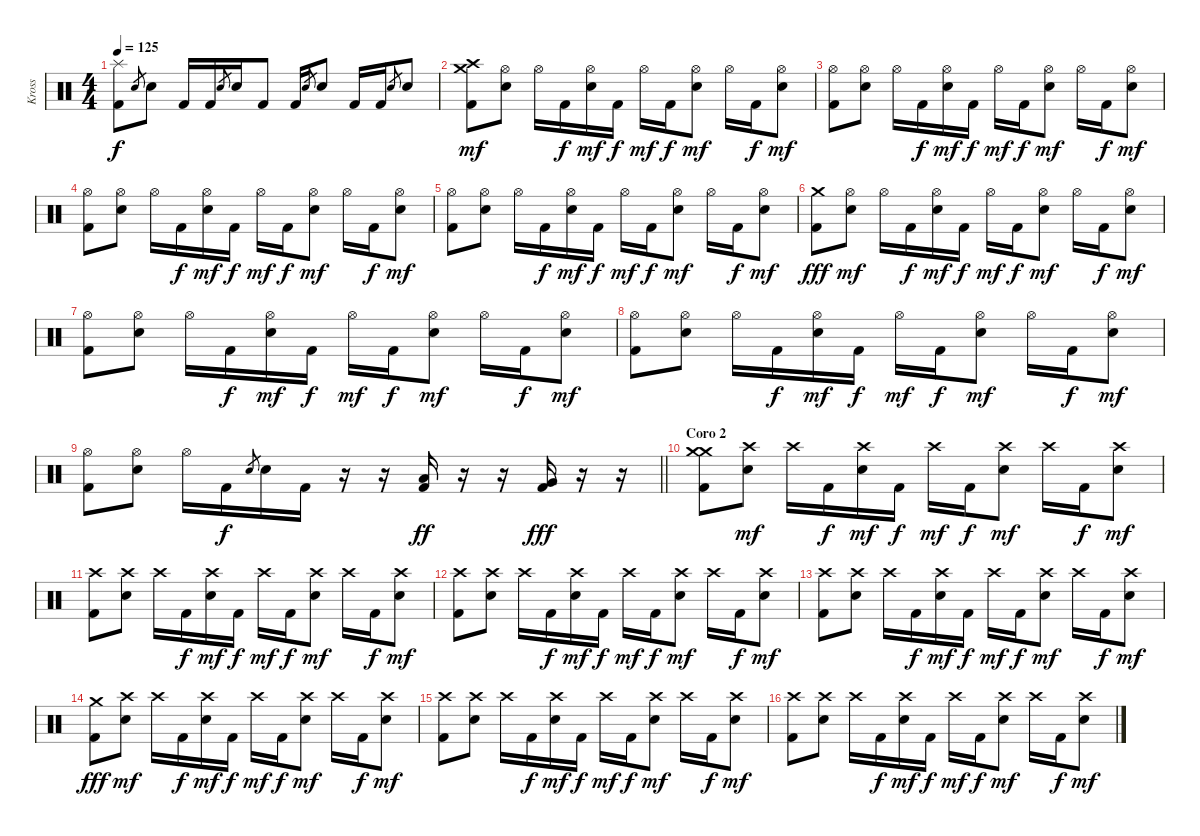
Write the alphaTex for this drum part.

\track ("Kross" "Kross") {instrument percussion}
\staff {score}
\articulation defaults
\ts (4 4)
\tempo 125
\clef neutral
\ks c
("Splash (hit)" "Kick (hit) 2").8{dy f} "Snare (hit) 2".8{gr} "Snare (hit) 2".8 "Kick (hit) 2".16 "Kick (hit) 2".16 "Snare (hit) 2".8{gr} "Snare (hit) 2".16 "Kick (hit) 2".8 "Kick (hit) 2".16 "Snare (hit) 2".8{gr} "Snare (hit) 2".8 "Kick (hit) 2".16 "Kick (hit) 2".16 "Snare (hit) 2".8{gr} "Snare (hit) 2".8 |
("Crash medium (hit)" "Crash high (hit)" "Kick (hit) 2").8{dy mf} ("Hi-Hat (open)" "Snare (hit) 2").8 "Hi-Hat (open)".16 "Kick (hit) 2".16{dy f} ("Hi-Hat (open)" "Snare (hit) 2").16{dy mf} "Kick (hit) 2".16{dy f} "Hi-Hat (open)".16{dy mf} "Kick (hit) 2".16{dy f} ("Hi-Hat (open)" "Snare (hit) 2").8{dy mf} "Hi-Hat (open)".16 "Kick (hit) 2".16{dy f} ("Hi-Hat (open)" "Snare (hit) 2").8{dy mf} |
("Hi-Hat (open)" "Kick (hit) 2").8 ("Hi-Hat (open)" "Snare (hit) 2").8 "Hi-Hat (open)".16 "Kick (hit) 2".16{dy f} ("Hi-Hat (open)" "Snare (hit) 2").16{dy mf} "Kick (hit) 2".16{dy f} "Hi-Hat (open)".16{dy mf} "Kick (hit) 2".16{dy f} ("Hi-Hat (open)" "Snare (hit) 2").8{dy mf} "Hi-Hat (open)".16 "Kick (hit) 2".16{dy f} ("Hi-Hat (open)" "Snare (hit) 2").8{dy mf} |
("Hi-Hat (open)" "Kick (hit) 2").8 ("Hi-Hat (open)" "Snare (hit) 2").8 "Hi-Hat (open)".16 "Kick (hit) 2".16{dy f} ("Hi-Hat (open)" "Snare (hit) 2").16{dy mf} "Kick (hit) 2".16{dy f} "Hi-Hat (open)".16{dy mf} "Kick (hit) 2".16{dy f} ("Hi-Hat (open)" "Snare (hit) 2").8{dy mf} "Hi-Hat (open)".16 "Kick (hit) 2".16{dy f} ("Hi-Hat (open)" "Snare (hit) 2").8{dy mf} |
("Hi-Hat (open)" "Kick (hit) 2").8 ("Hi-Hat (open)" "Snare (hit) 2").8 "Hi-Hat (open)".16 "Kick (hit) 2".16{dy f} ("Hi-Hat (open)" "Snare (hit) 2").16{dy mf} "Kick (hit) 2".16{dy f} "Hi-Hat (open)".16{dy mf} "Kick (hit) 2".16{dy f} ("Hi-Hat (open)" "Snare (hit) 2").8{dy mf} "Hi-Hat (open)".16 "Kick (hit) 2".16{dy f} ("Hi-Hat (open)" "Snare (hit) 2").8{dy mf} |
("Crash medium (hit)" "Kick (hit) 2").8{dy fff} ("Hi-Hat (open)" "Snare (hit) 2").8{dy mf} "Hi-Hat (open)".16 "Kick (hit) 2".16{dy f} ("Hi-Hat (open)" "Snare (hit) 2").16{dy mf} "Kick (hit) 2".16{dy f} "Hi-Hat (open)".16{dy mf} "Kick (hit) 2".16{dy f} ("Hi-Hat (open)" "Snare (hit) 2").8{dy mf} "Hi-Hat (open)".16 "Kick (hit) 2".16{dy f} ("Hi-Hat (open)" "Snare (hit) 2").8{dy mf} |
("Hi-Hat (open)" "Kick (hit) 2").8 ("Hi-Hat (open)" "Snare (hit) 2").8 "Hi-Hat (open)".16 "Kick (hit) 2".16{dy f} ("Hi-Hat (open)" "Snare (hit) 2").16{dy mf} "Kick (hit) 2".16{dy f} "Hi-Hat (open)".16{dy mf} "Kick (hit) 2".16{dy f} ("Hi-Hat (open)" "Snare (hit) 2").8{dy mf} "Hi-Hat (open)".16 "Kick (hit) 2".16{dy f} ("Hi-Hat (open)" "Snare (hit) 2").8{dy mf} |
("Hi-Hat (open)" "Kick (hit) 2").8 ("Hi-Hat (open)" "Snare (hit) 2").8 "Hi-Hat (open)".16 "Kick (hit) 2".16{dy f} ("Hi-Hat (open)" "Snare (hit) 2").16{dy mf} "Kick (hit) 2".16{dy f} "Hi-Hat (open)".16{dy mf} "Kick (hit) 2".16{dy f} ("Hi-Hat (open)" "Snare (hit) 2").8{dy mf} "Hi-Hat (open)".16 "Kick (hit) 2".16{dy f} ("Hi-Hat (open)" "Snare (hit) 2").8{dy mf} |
\barLineRight lightlight
("Hi-Hat (open)" "Kick (hit) 2").8 ("Hi-Hat (open)" "Snare (hit) 2").8 "Hi-Hat (open)".16 "Kick (hit) 2".16{dy f} "Snare (hit) 2".8{gr} "Snare (hit) 2".16 "Kick (hit) 2".16 r.16 r.16 ("Low Tom (hit)" "Kick (hit) 2").16{dy ff} r.16 r.16 ("Very Low Tom (hit)" "Kick (hit) 2").16{dy fff} r.16 r.16 |
\section ("" "Coro 2")
("Crash medium (hit)" "Crash medium (hit)" "Kick (hit) 2").8 ("Crash high (hit)" "Snare (hit) 2").8{dy mf} "Crash high (hit)".16 "Kick (hit) 2".16{dy f} ("Crash high (hit)" "Snare (hit) 2").16{dy mf} "Kick (hit) 2".16{dy f} "Crash high (hit)".16{dy mf} "Kick (hit) 2".16{dy f} ("Crash high (hit)" "Snare (hit) 2").8{dy mf} "Crash high (hit)".16 "Kick (hit) 2".16{dy f} ("Crash high (hit)" "Snare (hit) 2").8{dy mf} |
("Crash high (hit)" "Kick (hit) 2").8 ("Crash high (hit)" "Snare (hit) 2").8 "Crash high (hit)".16 "Kick (hit) 2".16{dy f} ("Crash high (hit)" "Snare (hit) 2").16{dy mf} "Kick (hit) 2".16{dy f} "Crash high (hit)".16{dy mf} "Kick (hit) 2".16{dy f} ("Crash high (hit)" "Snare (hit) 2").8{dy mf} "Crash high (hit)".16 "Kick (hit) 2".16{dy f} ("Crash high (hit)" "Snare (hit) 2").8{dy mf} |
("Crash high (hit)" "Kick (hit) 2").8 ("Crash high (hit)" "Snare (hit) 2").8 "Crash high (hit)".16 "Kick (hit) 2".16{dy f} ("Crash high (hit)" "Snare (hit) 2").16{dy mf} "Kick (hit) 2".16{dy f} "Crash high (hit)".16{dy mf} "Kick (hit) 2".16{dy f} ("Crash high (hit)" "Snare (hit) 2").8{dy mf} "Crash high (hit)".16 "Kick (hit) 2".16{dy f} ("Crash high (hit)" "Snare (hit) 2").8{dy mf} |
("Crash high (hit)" "Kick (hit) 2").8 ("Crash high (hit)" "Snare (hit) 2").8 "Crash high (hit)".16 "Kick (hit) 2".16{dy f} ("Crash high (hit)" "Snare (hit) 2").16{dy mf} "Kick (hit) 2".16{dy f} "Crash high (hit)".16{dy mf} "Kick (hit) 2".16{dy f} ("Crash high (hit)" "Snare (hit) 2").8{dy mf} "Crash high (hit)".16 "Kick (hit) 2".16{dy f} ("Crash high (hit)" "Snare (hit) 2").8{dy mf} |
("Crash medium (hit)" "Kick (hit) 2").8{dy fff} ("Crash high (hit)" "Snare (hit) 2").8{dy mf} "Crash high (hit)".16 "Kick (hit) 2".16{dy f} ("Crash high (hit)" "Snare (hit) 2").16{dy mf} "Kick (hit) 2".16{dy f} "Crash high (hit)".16{dy mf} "Kick (hit) 2".16{dy f} ("Crash high (hit)" "Snare (hit) 2").8{dy mf} "Crash high (hit)".16 "Kick (hit) 2".16{dy f} ("Crash high (hit)" "Snare (hit) 2").8{dy mf} |
("Crash high (hit)" "Kick (hit) 2").8 ("Crash high (hit)" "Snare (hit) 2").8 "Crash high (hit)".16 "Kick (hit) 2".16{dy f} ("Crash high (hit)" "Snare (hit) 2").16{dy mf} "Kick (hit) 2".16{dy f} "Crash high (hit)".16{dy mf} "Kick (hit) 2".16{dy f} ("Crash high (hit)" "Snare (hit) 2").8{dy mf} "Crash high (hit)".16 "Kick (hit) 2".16{dy f} ("Crash high (hit)" "Snare (hit) 2").8{dy mf} |
("Crash high (hit)" "Kick (hit) 2").8 ("Crash high (hit)" "Snare (hit) 2").8 "Crash high (hit)".16 "Kick (hit) 2".16{dy f} ("Crash high (hit)" "Snare (hit) 2").16{dy mf} "Kick (hit) 2".16{dy f} "Crash high (hit)".16{dy mf} "Kick (hit) 2".16{dy f} ("Crash high (hit)" "Snare (hit) 2").8{dy mf} "Crash high (hit)".16 "Kick (hit) 2".16{dy f} ("Crash high (hit)" "Snare (hit) 2").8{dy mf}
